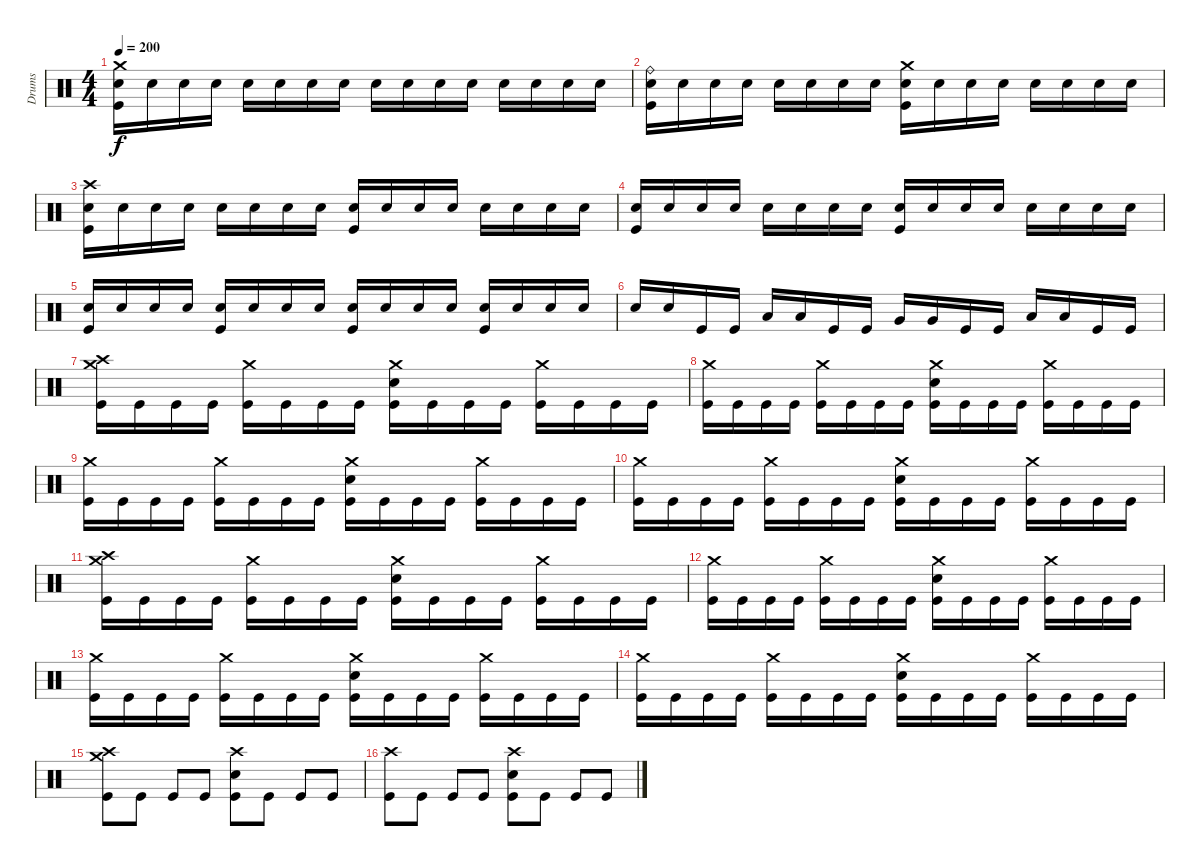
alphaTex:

\track ("Drums" "Drums") {instrument percussion}
\staff {score}
\articulation defaults
\ts (4 4)
\tempo 200
\clef neutral
\ks c
("Crash medium (hit)" "Electric Snare (hit)" "Kick (hit)").16{dy f} "Electric Snare (hit)".16 "Electric Snare (hit)".16 "Electric Snare (hit)".16 "Electric Snare (hit)".16 "Electric Snare (hit)".16 "Electric Snare (hit)".16 "Electric Snare (hit)".16 "Electric Snare (hit)".16 "Electric Snare (hit)".16 "Electric Snare (hit)".16 "Electric Snare (hit)".16 "Electric Snare (hit)".16 "Electric Snare (hit)".16 "Electric Snare (hit)".16 "Electric Snare (hit)".16 |
("Ride (bell)" "Electric Snare (hit)" "Kick (hit)").16 "Electric Snare (hit)".16 "Electric Snare (hit)".16 "Electric Snare (hit)".16 "Electric Snare (hit)".16 "Electric Snare (hit)".16 "Electric Snare (hit)".16 "Electric Snare (hit)".16 ("Crash medium (hit)" "Electric Snare (hit)" "Kick (hit)").16 "Electric Snare (hit)".16 "Electric Snare (hit)".16 "Electric Snare (hit)".16 "Electric Snare (hit)".16 "Electric Snare (hit)".16 "Electric Snare (hit)".16 "Electric Snare (hit)".16 |
("Crash high (hit)" "Electric Snare (hit)" "Kick (hit)").16 "Electric Snare (hit)".16 "Electric Snare (hit)".16 "Electric Snare (hit)".16 "Electric Snare (hit)".16 "Electric Snare (hit)".16 "Electric Snare (hit)".16 "Electric Snare (hit)".16 ("Electric Snare (hit)" "Kick (hit)").16 "Electric Snare (hit)".16 "Electric Snare (hit)".16 "Electric Snare (hit)".16 "Electric Snare (hit)".16 "Electric Snare (hit)".16 "Electric Snare (hit)".16 "Electric Snare (hit)".16 |
("Electric Snare (hit)" "Kick (hit)").16 "Electric Snare (hit)".16 "Electric Snare (hit)".16 "Electric Snare (hit)".16 "Electric Snare (hit)".16 "Electric Snare (hit)".16 "Electric Snare (hit)".16 "Electric Snare (hit)".16 ("Electric Snare (hit)" "Kick (hit)").16 "Electric Snare (hit)".16 "Electric Snare (hit)".16 "Electric Snare (hit)".16 "Electric Snare (hit)".16 "Electric Snare (hit)".16 "Electric Snare (hit)".16 "Electric Snare (hit)".16 |
("Electric Snare (hit)" "Kick (hit)").16 "Electric Snare (hit)".16 "Electric Snare (hit)".16 "Electric Snare (hit)".16 ("Electric Snare (hit)" "Kick (hit)").16 "Electric Snare (hit)".16 "Electric Snare (hit)".16 "Electric Snare (hit)".16 ("Electric Snare (hit)" "Kick (hit)").16 "Electric Snare (hit)".16 "Electric Snare (hit)".16 "Electric Snare (hit)".16 ("Electric Snare (hit)" "Kick (hit)").16 "Electric Snare (hit)".16 "Electric Snare (hit)".16 "Electric Snare (hit)".16 |
"Electric Snare (hit)".16 "Electric Snare (hit)".16 "Kick (hit)".16 "Kick (hit)".16 "Low Tom (hit)".16 "Low Tom (hit)".16 "Kick (hit)".16 "Kick (hit)".16 "Very Low Tom (hit)".16 "Very Low Tom (hit)".16 "Kick (hit)".16 "Kick (hit)".16 "Low Floor Tom (hit)".16 "Low Floor Tom (hit)".16 "Kick (hit)".16 "Kick (hit)".16 |
("Crash medium (hit)" "Crash high (hit)" "Kick (hit)").16 "Kick (hit)".16 "Kick (hit)".16 "Kick (hit)".16 ("Crash medium (hit)" "Kick (hit)").16 "Kick (hit)".16 "Kick (hit)".16 "Kick (hit)".16 ("Crash medium (hit)" "Electric Snare (hit)" "Kick (hit)").16 "Kick (hit)".16 "Kick (hit)".16 "Kick (hit)".16 ("Crash medium (hit)" "Kick (hit)").16 "Kick (hit)".16 "Kick (hit)".16 "Kick (hit)".16 |
("Crash medium (hit)" "Kick (hit)").16 "Kick (hit)".16 "Kick (hit)".16 "Kick (hit)".16 ("Crash medium (hit)" "Kick (hit)").16 "Kick (hit)".16 "Kick (hit)".16 "Kick (hit)".16 ("Crash medium (hit)" "Electric Snare (hit)" "Kick (hit)").16 "Kick (hit)".16 "Kick (hit)".16 "Kick (hit)".16 ("Crash medium (hit)" "Kick (hit)").16 "Kick (hit)".16 "Kick (hit)".16 "Kick (hit)".16 |
("Crash medium (hit)" "Kick (hit)").16 "Kick (hit)".16 "Kick (hit)".16 "Kick (hit)".16 ("Crash medium (hit)" "Kick (hit)").16 "Kick (hit)".16 "Kick (hit)".16 "Kick (hit)".16 ("Crash medium (hit)" "Electric Snare (hit)" "Kick (hit)").16 "Kick (hit)".16 "Kick (hit)".16 "Kick (hit)".16 ("Crash medium (hit)" "Kick (hit)").16 "Kick (hit)".16 "Kick (hit)".16 "Kick (hit)".16 |
("Crash medium (hit)" "Kick (hit)").16 "Kick (hit)".16 "Kick (hit)".16 "Kick (hit)".16 ("Crash medium (hit)" "Kick (hit)").16 "Kick (hit)".16 "Kick (hit)".16 "Kick (hit)".16 ("Crash medium (hit)" "Electric Snare (hit)" "Kick (hit)").16 "Kick (hit)".16 "Kick (hit)".16 "Kick (hit)".16 ("Crash medium (hit)" "Kick (hit)").16 "Kick (hit)".16 "Kick (hit)".16 "Kick (hit)".16 |
("Crash medium (hit)" "Crash high (hit)" "Kick (hit)").16 "Kick (hit)".16 "Kick (hit)".16 "Kick (hit)".16 ("Crash medium (hit)" "Kick (hit)").16 "Kick (hit)".16 "Kick (hit)".16 "Kick (hit)".16 ("Crash medium (hit)" "Electric Snare (hit)" "Kick (hit)").16 "Kick (hit)".16 "Kick (hit)".16 "Kick (hit)".16 ("Crash medium (hit)" "Kick (hit)").16 "Kick (hit)".16 "Kick (hit)".16 "Kick (hit)".16 |
("Crash medium (hit)" "Kick (hit)").16 "Kick (hit)".16 "Kick (hit)".16 "Kick (hit)".16 ("Crash medium (hit)" "Kick (hit)").16 "Kick (hit)".16 "Kick (hit)".16 "Kick (hit)".16 ("Crash medium (hit)" "Electric Snare (hit)" "Kick (hit)").16 "Kick (hit)".16 "Kick (hit)".16 "Kick (hit)".16 ("Crash medium (hit)" "Kick (hit)").16 "Kick (hit)".16 "Kick (hit)".16 "Kick (hit)".16 |
("Crash medium (hit)" "Kick (hit)").16 "Kick (hit)".16 "Kick (hit)".16 "Kick (hit)".16 ("Crash medium (hit)" "Kick (hit)").16 "Kick (hit)".16 "Kick (hit)".16 "Kick (hit)".16 ("Crash medium (hit)" "Electric Snare (hit)" "Kick (hit)").16 "Kick (hit)".16 "Kick (hit)".16 "Kick (hit)".16 ("Crash medium (hit)" "Kick (hit)").16 "Kick (hit)".16 "Kick (hit)".16 "Kick (hit)".16 |
("Crash medium (hit)" "Kick (hit)").16 "Kick (hit)".16 "Kick (hit)".16 "Kick (hit)".16 ("Crash medium (hit)" "Kick (hit)").16 "Kick (hit)".16 "Kick (hit)".16 "Kick (hit)".16 ("Crash medium (hit)" "Electric Snare (hit)" "Kick (hit)").16 "Kick (hit)".16 "Kick (hit)".16 "Kick (hit)".16 ("Crash medium (hit)" "Kick (hit)").16 "Kick (hit)".16 "Kick (hit)".16 "Kick (hit)".16 |
("Crash high (hit)" "Crash medium (hit)" "Kick (hit)").8 "Kick (hit)".8 "Kick (hit)".8 "Kick (hit)".8 ("Crash high (hit)" "Electric Snare (hit)" "Kick (hit)").8 "Kick (hit)".8 "Kick (hit)".8 "Kick (hit)".8 |
("Crash high (hit)" "Kick (hit)").8 "Kick (hit)".8 "Kick (hit)".8 "Kick (hit)".8 ("Crash high (hit)" "Electric Snare (hit)" "Kick (hit)").8 "Kick (hit)".8 "Kick (hit)".8 "Kick (hit)".8
